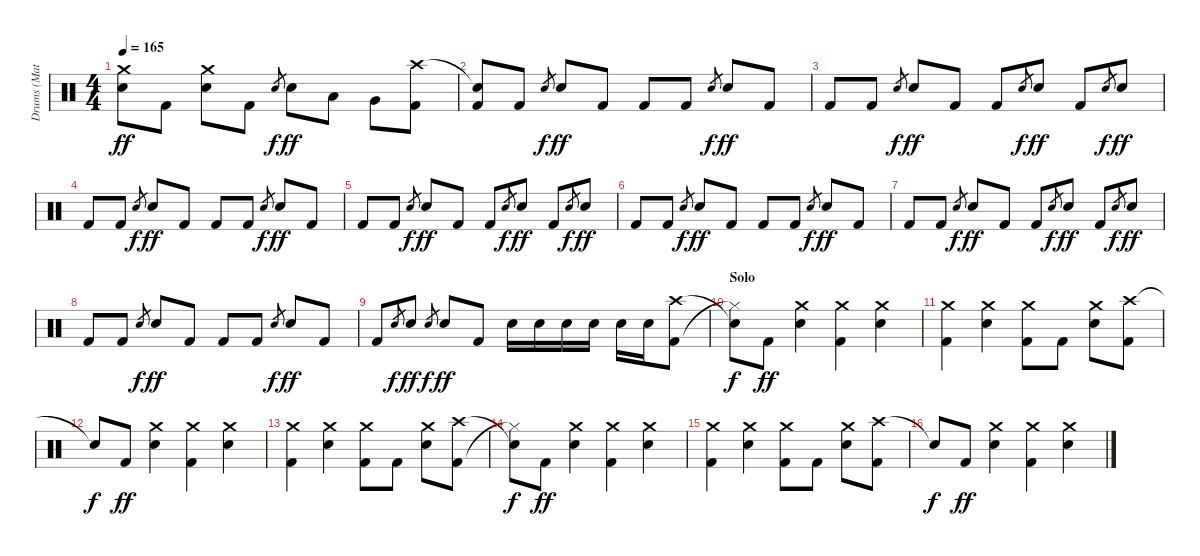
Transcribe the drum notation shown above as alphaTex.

\track ("Drums (Matt)" "Drums (Mat") {instrument percussion}
\staff {score}
\articulation defaults
\ts (4 4)
\tempo 165
\clef neutral
\ks c
("Crash medium (hit)" "Snare (hit) 2").8{dy ff} "Kick (hit) 2".8 ("Crash medium (hit)" "Snare (hit) 2").8 "Kick (hit) 2".8 "Snare (hit) 2".8{gr dy f} "Snare (hit) 2".8{dy ff} "Low Tom (hit)".8 "Very Low Tom (hit)".8 ("Crash high (hit)" "Kick (hit) 2").8 |
("Snare (hit)"{t} "Kick (hit) 2").8 "Kick (hit) 2".8 "Snare (hit) 2".8{gr dy f} "Snare (hit) 2".8{dy ff} "Kick (hit) 2".8 "Kick (hit) 2".8 "Kick (hit) 2".8 "Snare (hit) 2".8{gr dy f} "Snare (hit) 2".8{dy ff} "Kick (hit) 2".8 |
"Kick (hit) 2".8 "Kick (hit) 2".8 "Snare (hit) 2".8{gr dy f} "Snare (hit) 2".8{dy ff} "Kick (hit) 2".8 "Kick (hit) 2".8 "Snare (hit) 2".8{gr dy f} "Snare (hit) 2".8{dy ff} "Kick (hit) 2".8 "Snare (hit) 2".8{gr dy f} "Snare (hit) 2".8{dy ff} |
"Kick (hit) 2".8 "Kick (hit) 2".8 "Snare (hit) 2".8{gr dy f} "Snare (hit) 2".8{dy ff} "Kick (hit) 2".8 "Kick (hit) 2".8 "Kick (hit) 2".8 "Snare (hit) 2".8{gr dy f} "Snare (hit) 2".8{dy ff} "Kick (hit) 2".8 |
"Kick (hit) 2".8 "Kick (hit) 2".8 "Snare (hit) 2".8{gr dy f} "Snare (hit) 2".8{dy ff} "Kick (hit) 2".8 "Kick (hit) 2".8 "Snare (hit) 2".8{gr dy f} "Snare (hit) 2".8{dy ff} "Kick (hit) 2".8 "Snare (hit) 2".8{gr dy f} "Snare (hit) 2".8{dy ff} |
"Kick (hit) 2".8 "Kick (hit) 2".8 "Snare (hit) 2".8{gr dy f} "Snare (hit) 2".8{dy ff} "Kick (hit) 2".8 "Kick (hit) 2".8 "Kick (hit) 2".8 "Snare (hit) 2".8{gr dy f} "Snare (hit) 2".8{dy ff} "Kick (hit) 2".8 |
"Kick (hit) 2".8 "Kick (hit) 2".8 "Snare (hit) 2".8{gr dy f} "Snare (hit) 2".8{dy ff} "Kick (hit) 2".8 "Kick (hit) 2".8 "Snare (hit) 2".8{gr dy f} "Snare (hit) 2".8{dy ff} "Kick (hit) 2".8 "Snare (hit) 2".8{gr dy f} "Snare (hit) 2".8{dy ff} |
"Kick (hit) 2".8 "Kick (hit) 2".8 "Snare (hit) 2".8{gr dy f} "Snare (hit) 2".8{dy ff} "Kick (hit) 2".8 "Kick (hit) 2".8 "Kick (hit) 2".8 "Snare (hit) 2".8{gr dy f} "Snare (hit) 2".8{dy ff} "Kick (hit) 2".8 |
"Kick (hit) 2".8 "Snare (hit) 2".8{gr dy f} "Snare (hit) 2".8{dy ff} "Snare (hit) 2".8{gr dy f} "Snare (hit) 2".8{dy ff} "Kick (hit) 2".8 "Snare (hit) 2".16 "Snare (hit) 2".16 "Snare (hit) 2".16 "Snare (hit) 2".16 "Snare (hit) 2".16 "Snare (hit) 2".16 ("Crash high (hit)" "Kick (hit) 2").8 |
\section ("" "Solo")
("Snare (hit)"{t} "Hi-Hat (closed)"{t}).8{dy f} "Kick (hit) 2".8{dy ff} ("Crash medium (hit)" "Snare (hit) 2").4 ("Crash medium (hit)" "Kick (hit) 2").4 ("Crash medium (hit)" "Snare (hit) 2").4 |
("Crash medium (hit)" "Kick (hit) 2").4 ("Crash medium (hit)" "Snare (hit) 2").4 ("Crash medium (hit)" "Kick (hit) 2").8 "Kick (hit) 2".8 ("Crash medium (hit)" "Snare (hit) 2").8 ("Crash high (hit)" "Kick (hit) 2").8 |
"Snare (hit)"{t}.8{dy f} "Kick (hit) 2".8{dy ff} ("Crash medium (hit)" "Snare (hit) 2").4 ("Crash medium (hit)" "Kick (hit) 2").4 ("Crash medium (hit)" "Snare (hit) 2").4 |
("Crash medium (hit)" "Kick (hit) 2").4 ("Crash medium (hit)" "Snare (hit) 2").4 ("Crash medium (hit)" "Kick (hit) 2").8 "Kick (hit) 2".8 ("Crash medium (hit)" "Snare (hit) 2").8 ("Crash high (hit)" "Kick (hit) 2").8 |
("Snare (hit)"{t} "Hi-Hat (closed)"{t}).8{dy f} "Kick (hit) 2".8{dy ff} ("Crash medium (hit)" "Snare (hit) 2").4 ("Crash medium (hit)" "Kick (hit) 2").4 ("Crash medium (hit)" "Snare (hit) 2").4 |
("Crash medium (hit)" "Kick (hit) 2").4 ("Crash medium (hit)" "Snare (hit) 2").4 ("Crash medium (hit)" "Kick (hit) 2").8 "Kick (hit) 2".8 ("Crash medium (hit)" "Snare (hit) 2").8 ("Crash high (hit)" "Kick (hit) 2").8 |
"Snare (hit)"{t}.8{dy f} "Kick (hit) 2".8{dy ff} ("Crash medium (hit)" "Snare (hit) 2").4 ("Crash medium (hit)" "Kick (hit) 2").4 ("Crash medium (hit)" "Snare (hit) 2").4
